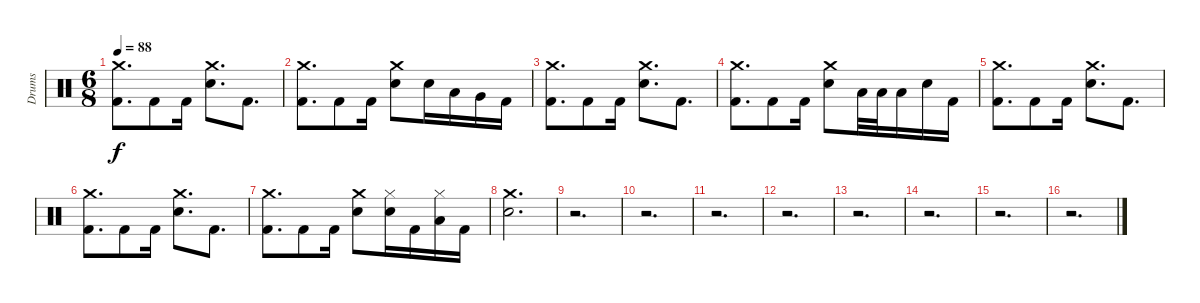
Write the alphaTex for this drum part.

\track ("Drums" "Drums") {instrument percussion}
\staff {score}
\articulation defaults
\ts (6 8)
\tempo 88
\clef neutral
\ks c
("Crash medium (hit)" "Kick (hit) 2").8{d dy f} "Kick (hit) 2".8 "Kick (hit) 2".16 ("Crash medium (hit)" "Electric Snare (hit)").8{d} "Kick (hit) 2".8{d} |
("Crash medium (hit)" "Kick (hit) 2").8{d} "Kick (hit) 2".8 "Kick (hit) 2".16 ("Crash medium (hit)" "Electric Snare (hit)").8 "Electric Snare (hit)".16 "Low Tom (hit)".16 "Very Low Tom (hit)".16 "Kick (hit) 2".16 |
("Crash medium (hit)" "Kick (hit) 2").8{d} "Kick (hit) 2".8 "Kick (hit) 2".16 ("Crash medium (hit)" "Electric Snare (hit)").8{d} "Kick (hit) 2".8{d} |
("Crash medium (hit)" "Kick (hit) 2").8{d} "Kick (hit) 2".8 "Kick (hit) 2".16 ("Crash medium (hit)" "Electric Snare (hit)").8 "Low Tom (hit)".32 "Low Tom (hit)".32 "Low Tom (hit)".16 "Electric Snare (hit)".16 "Kick (hit) 2".16 |
("Crash medium (hit)" "Kick (hit) 2").8{d} "Kick (hit) 2".8 "Kick (hit) 2".16 ("Crash medium (hit)" "Electric Snare (hit)").8{d} "Kick (hit) 2".8{d} |
("Crash medium (hit)" "Kick (hit) 2").8{d} "Kick (hit) 2".8 "Kick (hit) 2".16 ("Crash medium (hit)" "Electric Snare (hit)").8{d} "Kick (hit) 2".8{d} |
("Crash medium (hit)" "Kick (hit) 2").8{d} "Kick (hit) 2".8 "Kick (hit) 2".16 ("Crash medium (hit)" "Electric Snare (hit)").8 ("Hi-Hat (closed)" "Electric Snare (hit)").16 "Kick (hit) 2".16 ("Hi-Hat (closed)" "Low Tom (hit)").16 "Kick (hit) 2".16 |
("Crash medium (hit)" "Electric Snare (hit)").2{d} |
r.2{d} |
r.2{d} |
r.2{d} |
r.2{d} |
r.2{d} |
r.2{d} |
r.2{d} |
r.2{d}
